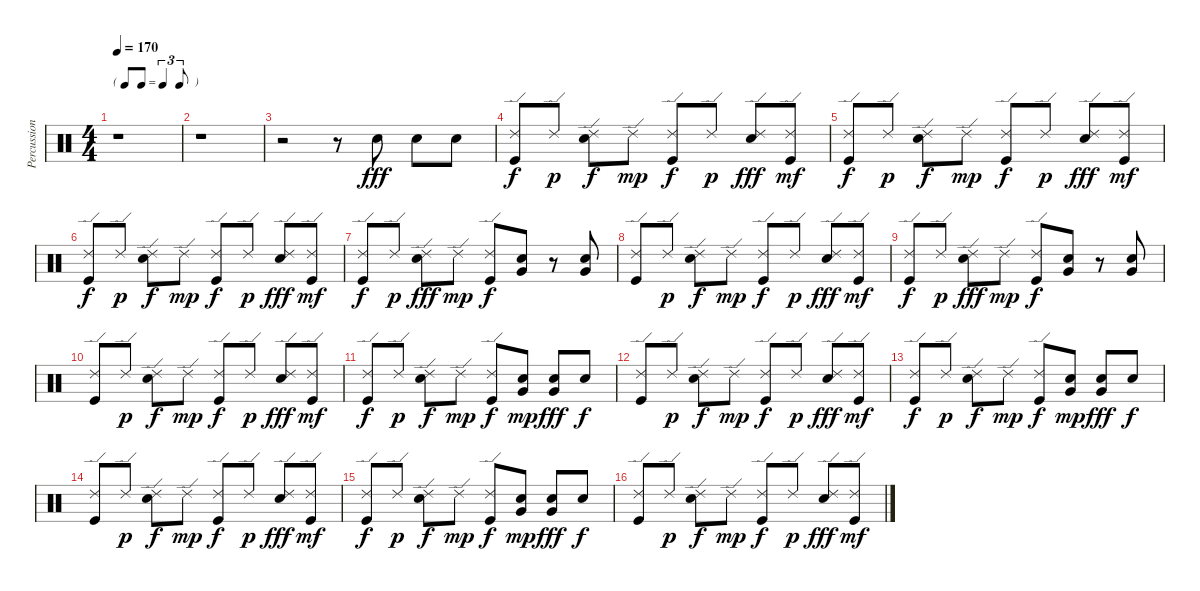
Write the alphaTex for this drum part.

\track ("Percussion" "Percussion") {instrument percussion}
\staff {score}
\articulation defaults
\ts (4 4)
\tf triplet8th
\tempo 170
\clef neutral
\ks c
r.1{dy fff} |
r.1 |
r.2 r.8 "Snare (hit) 2".8 "Snare (hit) 2".8 "Snare (hit) 2".8 |
("Ride (edge) 2" "Kick (hit)").8{dy f} "Ride (edge) 2".8{dy p} ("Ride (edge) 2" "Snare (hit) 2").8{dy f} "Ride (edge) 2".8{dy mp} ("Ride (edge) 2" "Kick (hit)").8{dy f} "Ride (edge) 2".8{dy p} ("Ride (edge) 2" "Snare (hit) 2").8{dy fff} ("Ride (edge) 2" "Kick (hit)").8{dy mf} |
("Ride (edge) 2" "Kick (hit)").8{dy f} "Ride (edge) 2".8{dy p} ("Ride (edge) 2" "Snare (hit) 2").8{dy f} "Ride (edge) 2".8{dy mp} ("Ride (edge) 2" "Kick (hit)").8{dy f} "Ride (edge) 2".8{dy p} ("Ride (edge) 2" "Snare (hit) 2").8{dy fff} ("Ride (edge) 2" "Kick (hit)").8{dy mf} |
("Ride (edge) 2" "Kick (hit)").8{dy f} "Ride (edge) 2".8{dy p} ("Ride (edge) 2" "Snare (hit) 2").8{dy f} "Ride (edge) 2".8{dy mp} ("Ride (edge) 2" "Kick (hit)").8{dy f} "Ride (edge) 2".8{dy p} ("Ride (edge) 2" "Snare (hit) 2").8{dy fff} ("Ride (edge) 2" "Kick (hit)").8{dy mf} |
("Ride (edge) 2" "Kick (hit)").8{dy f} "Ride (edge) 2".8{dy p} ("Ride (edge) 2" "Snare (hit) 2").8{dy fff} "Ride (edge) 2".8{dy mp} ("Ride (edge) 2" "Kick (hit)").8{dy f} ("Snare (hit) 2" "Very Low Tom (hit)").8 r.8 ("Snare (hit) 2" "Very Low Tom (hit)").8 |
("Ride (edge) 2" "Kick (hit)").8 "Ride (edge) 2".8{dy p} ("Ride (edge) 2" "Snare (hit) 2").8{dy f} "Ride (edge) 2".8{dy mp} ("Ride (edge) 2" "Kick (hit)").8{dy f} "Ride (edge) 2".8{dy p} ("Ride (edge) 2" "Snare (hit) 2").8{dy fff} ("Ride (edge) 2" "Kick (hit)").8{dy mf} |
("Ride (edge) 2" "Kick (hit)").8{dy f} "Ride (edge) 2".8{dy p} ("Ride (edge) 2" "Snare (hit) 2").8{dy fff} "Ride (edge) 2".8{dy mp} ("Ride (edge) 2" "Kick (hit)").8{dy f} ("Snare (hit) 2" "Very Low Tom (hit)").8 r.8 ("Snare (hit) 2" "Very Low Tom (hit)").8 |
("Ride (edge) 2" "Kick (hit)").8 "Ride (edge) 2".8{dy p} ("Ride (edge) 2" "Snare (hit) 2").8{dy f} "Ride (edge) 2".8{dy mp} ("Ride (edge) 2" "Kick (hit)").8{dy f} "Ride (edge) 2".8{dy p} ("Ride (edge) 2" "Snare (hit) 2").8{dy fff} ("Ride (edge) 2" "Kick (hit)").8{dy mf} |
("Ride (edge) 2" "Kick (hit)").8{dy f} "Ride (edge) 2".8{dy p} ("Ride (edge) 2" "Snare (hit) 2").8{dy f} "Ride (edge) 2".8{dy mp} ("Ride (edge) 2" "Kick (hit)").8{dy f} ("Very Low Tom (hit)" "Snare (hit) 2").8{dy mp} ("Very Low Tom (hit)" "Snare (hit) 2").8{dy fff} "Snare (hit) 2".8{dy f} |
("Ride (edge) 2" "Kick (hit)").8 "Ride (edge) 2".8{dy p} ("Ride (edge) 2" "Snare (hit) 2").8{dy f} "Ride (edge) 2".8{dy mp} ("Ride (edge) 2" "Kick (hit)").8{dy f} "Ride (edge) 2".8{dy p} ("Ride (edge) 2" "Snare (hit) 2").8{dy fff} ("Ride (edge) 2" "Kick (hit)").8{dy mf} |
("Ride (edge) 2" "Kick (hit)").8{dy f} "Ride (edge) 2".8{dy p} ("Ride (edge) 2" "Snare (hit) 2").8{dy f} "Ride (edge) 2".8{dy mp} ("Ride (edge) 2" "Kick (hit)").8{dy f} ("Very Low Tom (hit)" "Snare (hit) 2").8{dy mp} ("Very Low Tom (hit)" "Snare (hit) 2").8{dy fff} "Snare (hit) 2".8{dy f} |
("Ride (edge) 2" "Kick (hit)").8 "Ride (edge) 2".8{dy p} ("Ride (edge) 2" "Snare (hit) 2").8{dy f} "Ride (edge) 2".8{dy mp} ("Ride (edge) 2" "Kick (hit)").8{dy f} "Ride (edge) 2".8{dy p} ("Ride (edge) 2" "Snare (hit) 2").8{dy fff} ("Ride (edge) 2" "Kick (hit)").8{dy mf} |
("Ride (edge) 2" "Kick (hit)").8{dy f} "Ride (edge) 2".8{dy p} ("Ride (edge) 2" "Snare (hit) 2").8{dy f} "Ride (edge) 2".8{dy mp} ("Ride (edge) 2" "Kick (hit)").8{dy f} ("Very Low Tom (hit)" "Snare (hit) 2").8{dy mp} ("Very Low Tom (hit)" "Snare (hit) 2").8{dy fff} "Snare (hit) 2".8{dy f} |
("Ride (edge) 2" "Kick (hit)").8 "Ride (edge) 2".8{dy p} ("Ride (edge) 2" "Snare (hit) 2").8{dy f} "Ride (edge) 2".8{dy mp} ("Ride (edge) 2" "Kick (hit)").8{dy f} "Ride (edge) 2".8{dy p} ("Ride (edge) 2" "Snare (hit) 2").8{dy fff} ("Ride (edge) 2" "Kick (hit)").8{dy mf}
